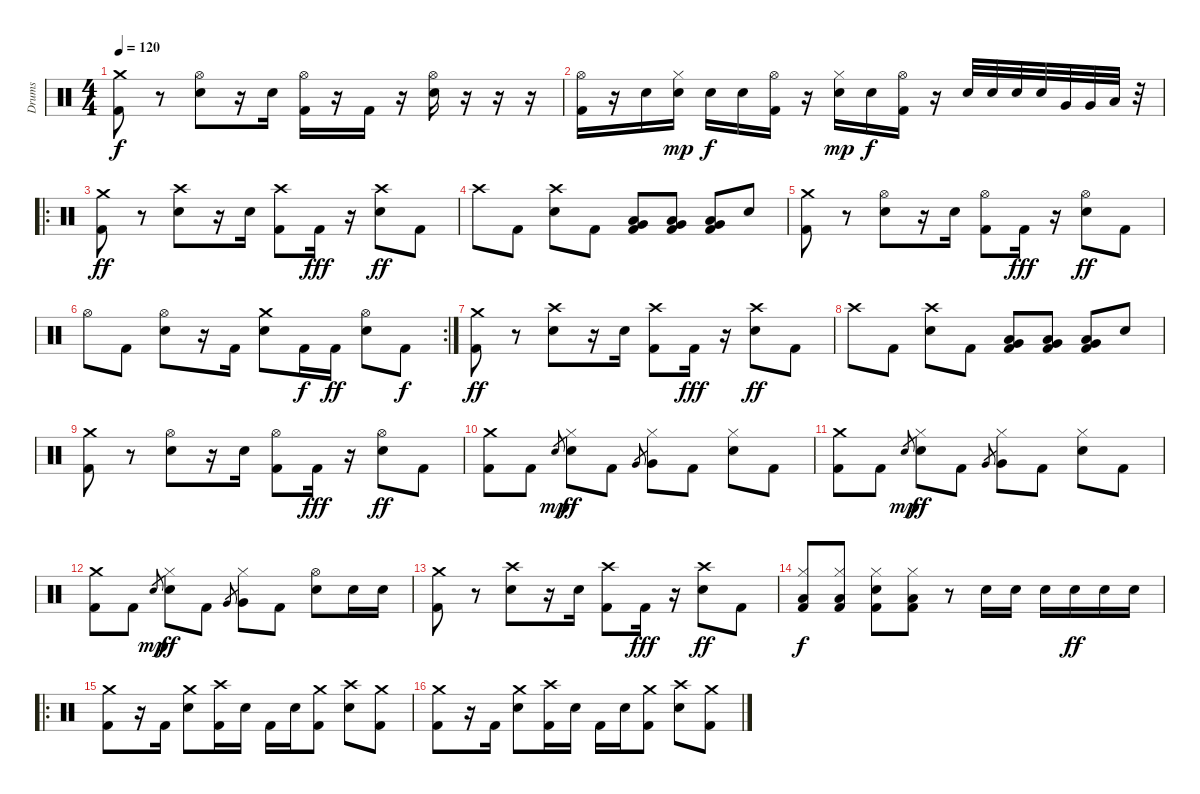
\track ("Drums" "Drums") {instrument percussion}
\staff {score}
\articulation defaults
\ts (4 4)
\tempo 120
\clef neutral
\ks c
("Crash medium (hit)" "Kick (hit) 2").8{dy f} r.8 ("Hi-Hat (open)" "Snare (hit) 2").8 r.16 "Snare (hit) 2".16 ("Hi-Hat (open)" "Kick (hit) 2").16 r.16 "Kick (hit) 2".16 r.16 ("Hi-Hat (open)" "Snare (hit) 2").16 r.16 r.16 r.16 |
("Hi-Hat (open)" "Kick (hit) 2").16 r.16 "Snare (hit) 2".16 ("Hi-Hat (closed)" "Snare (hit) 2").16{dy mp} "Snare (hit) 2".16{dy f} "Snare (hit) 2".16 ("Hi-Hat (open)" "Kick (hit) 2").16 r.16 ("Hi-Hat (closed)" "Snare (hit) 2").16{dy mp} "Snare (hit) 2".16{dy f} ("Hi-Hat (open)" "Kick (hit) 2").16 r.16 "Snare (hit) 2".32 "Snare (hit) 2".32 "Snare (hit) 2".32 "Snare (hit) 2".32 "Very Low Tom (hit)".32 "Very Low Tom (hit)".32 "Low Tom (hit)".32 r.32 |
\ro
("Crash medium (hit)" "Kick (hit) 2").8{dy ff} r.8 ("Crash high (hit)" "Snare (hit) 2").8 r.16 "Snare (hit) 2".16 ("Crash high (hit)" "Kick (hit) 2").8 "Kick (hit) 2".16{dy fff} r.16 ("Crash high (hit)" "Snare (hit) 2").8{dy ff} "Kick (hit) 2".8 |
"Crash high (hit)".8 "Kick (hit) 2".8 ("Crash high (hit)" "Snare (hit) 2").8 "Kick (hit) 2".8 ("Low Floor Tom (hit)" "Very Low Tom (hit)" "Kick (hit) 2").8 ("Low Floor Tom (hit)" "Very Low Tom (hit)" "Kick (hit) 2").8 ("Low Floor Tom (hit)" "Very Low Tom (hit)" "Kick (hit) 2").8 "Snare (hit) 2".8 |
("Crash medium (hit)" "Kick (hit) 2").8 r.8 ("Hi-Hat (open)" "Snare (hit) 2").8 r.16 "Snare (hit) 2".16 ("Hi-Hat (open)" "Kick (hit) 2").8 "Kick (hit) 2".16{dy fff} r.16 ("Hi-Hat (open)" "Snare (hit) 2").8{dy ff} "Kick (hit) 2".8 |
\rc 2 "Hi-Hat (open)".8 "Kick (hit) 2".8
("Hi-Hat (open)" "Snare (hit) 2").8 r.16 "Kick (hit) 2".16 ("Crash medium (hit)" "Snare (hit) 2").8 "Kick (hit) 2".16{dy f} "Kick (hit) 2".16{dy ff} ("Hi-Hat (open)" "Snare (hit) 2").8 "Kick (hit) 2".8{dy f} |
("Crash medium (hit)" "Kick (hit) 2").8{dy ff} r.8 ("Crash high (hit)" "Snare (hit) 2").8 r.16 "Snare (hit) 2".16 ("Crash high (hit)" "Kick (hit) 2").8 "Kick (hit) 2".16{dy fff} r.16 ("Crash high (hit)" "Snare (hit) 2").8{dy ff} "Kick (hit) 2".8 |
"Crash high (hit)".8 "Kick (hit) 2".8 ("Crash high (hit)" "Snare (hit) 2").8 "Kick (hit) 2".8 ("Low Floor Tom (hit)" "Very Low Tom (hit)" "Kick (hit) 2").8 ("Low Floor Tom (hit)" "Very Low Tom (hit)" "Kick (hit) 2").8 ("Low Floor Tom (hit)" "Very Low Tom (hit)" "Kick (hit) 2").8 "Snare (hit) 2".8 |
("Crash medium (hit)" "Kick (hit) 2").8 r.8 ("Hi-Hat (open)" "Snare (hit) 2").8 r.16 "Snare (hit) 2".16 ("Hi-Hat (open)" "Kick (hit) 2").8 "Kick (hit) 2".16{dy fff} r.16 ("Hi-Hat (open)" "Snare (hit) 2").8{dy ff} "Kick (hit) 2".8 |
("Crash medium (hit)" "Kick (hit) 2").8 "Kick (hit) 2".8 "Snare (hit) 2".8{gr dy mp} ("Hi-Hat (closed)" "Snare (hit) 2").8{dy ff} "Kick (hit) 2".8 "Very Low Tom (hit)".8{gr} ("Hi-Hat (closed)" "Very Low Tom (hit)").8 "Kick (hit) 2".8 ("Hi-Hat (closed)" "Snare (hit) 2").8 "Kick (hit) 2".8 |
("Crash medium (hit)" "Kick (hit) 2").8 "Kick (hit) 2".8 "Snare (hit) 2".8{gr dy mp} ("Hi-Hat (closed)" "Snare (hit) 2").8{dy ff} "Kick (hit) 2".8 "Very Low Tom (hit)".8{gr} ("Hi-Hat (closed)" "Very Low Tom (hit)").8 "Kick (hit) 2".8 ("Hi-Hat (closed)" "Snare (hit) 2").8 "Kick (hit) 2".8 |
("Crash medium (hit)" "Kick (hit) 2").8 "Kick (hit) 2".8 "Snare (hit) 2".8{gr dy mp} ("Hi-Hat (closed)" "Snare (hit) 2").8{dy ff} "Kick (hit) 2".8 "Very Low Tom (hit)".8{gr} ("Hi-Hat (closed)" "Very Low Tom (hit)").8 "Kick (hit) 2".8 ("Hi-Hat (open)" "Snare (hit) 2").8 "Snare (hit) 2".16 "Snare (hit) 2".16 |
("Crash medium (hit)" "Kick (hit) 2").8 r.8 ("Crash high (hit)" "Snare (hit) 2").8 r.16 "Snare (hit) 2".16 ("Crash high (hit)" "Kick (hit) 2").8 "Kick (hit) 2".16{dy fff} r.16 ("Crash high (hit)" "Snare (hit) 2").8{dy ff} "Kick (hit) 2".8 |
("Hi-Hat (closed)" "Low Floor Tom (hit)" "Kick (hit) 2").8{dy f} ("Hi-Hat (closed)" "Low Floor Tom (hit)" "Kick (hit) 2").8 ("Hi-Hat (closed)" "Snare (hit)" "Kick (hit) 2").8 ("Hi-Hat (closed)" "Low Floor Tom (hit)" "Kick (hit) 2").8 r.8 "Snare (hit) 2".16 "Snare (hit) 2".16 "Snare (hit) 2".16 "Snare (hit) 2".16{dy ff} "Snare (hit) 2".16 "Snare (hit) 2".16 |
\ro
("Crash medium (hit)" "Kick (hit) 2").8 r.16 "Kick (hit) 2".16 ("Crash medium (hit)" "Snare (hit) 2").8 ("Crash high (hit)" "Kick (hit) 2").16 "Snare (hit) 2".16 "Kick (hit) 2".16 "Snare (hit) 2".16 ("Crash medium (hit)" "Kick (hit) 2").8 ("Crash high (hit)" "Snare (hit) 2").8 ("Crash medium (hit)" "Kick (hit) 2").8 |
("Crash medium (hit)" "Kick (hit) 2").8 r.16 "Kick (hit) 2".16 ("Crash medium (hit)" "Snare (hit) 2").8 ("Crash high (hit)" "Kick (hit) 2").16 "Snare (hit) 2".16 "Kick (hit) 2".16 "Snare (hit) 2".16 ("Crash medium (hit)" "Kick (hit) 2").8 ("Crash high (hit)" "Snare (hit) 2").8 ("Crash medium (hit)" "Kick (hit) 2").8
